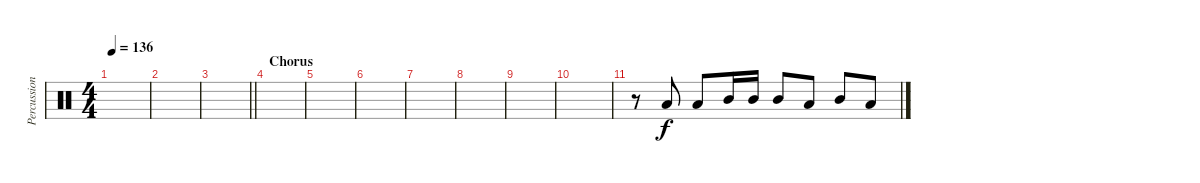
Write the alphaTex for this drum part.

\track ("Percussion (Guitar)" "Percussion") {instrument percussion}
\staff {score}
\articulation defaults
\ts (4 4)
\tempo 136
\clef neutral
\ks c
|
|
\barLineRight lightlight
|
\section ("" "Chorus")
|
|
|
|
|
|
|
r.8 "Low Tom (hit)".8 "Low Tom (hit)".8 "Mid Tom (hit)".16 "Mid Tom (hit)".16 "Mid Tom (hit)".8 "Low Tom (hit)".8 "Mid Tom (hit)".8 "Low Tom (hit)".8
